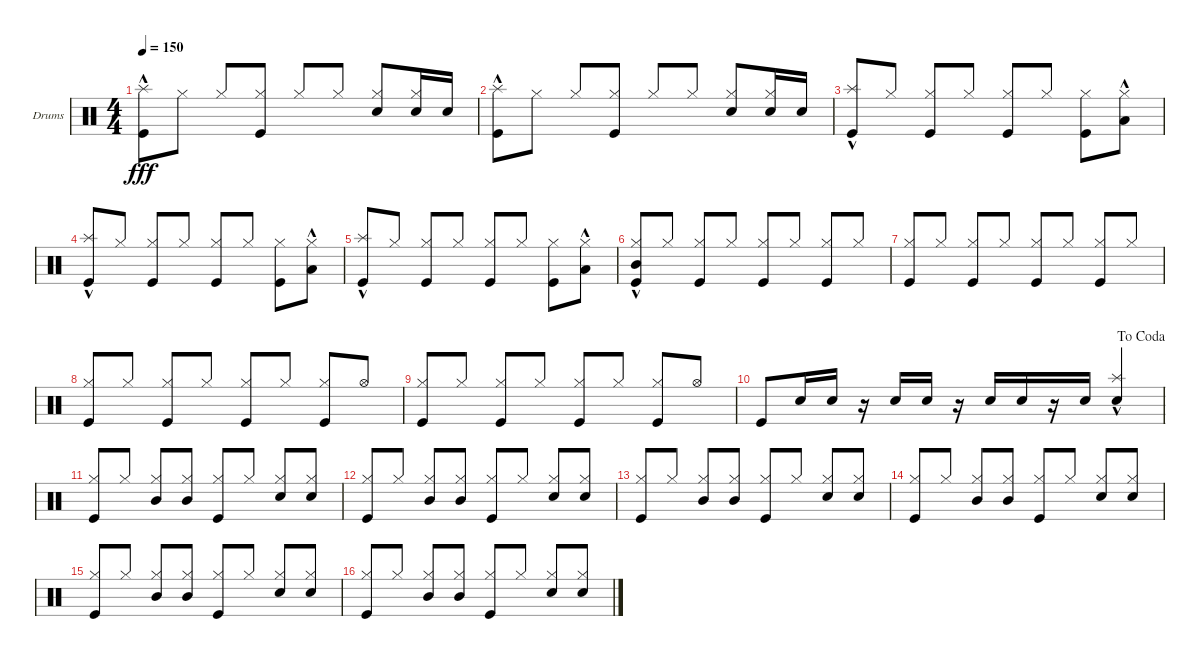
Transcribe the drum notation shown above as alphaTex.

\defaultSystemsLayout 4
\bracketExtendMode groupsimilarinstruments
\firstSystemTrackNameOrientation horizontal
\otherSystemsTrackNameOrientation horizontal
\track ("Drumkit" "Drums") {instrument percussion}
\staff {score}
\articulation defaults
\ts (4 4)
\tempo 150
\clef neutral
\ks c
("Kick (hit)" "Splash (hit)"{hac}).8{dy fff} "Hi-Hat (closed)".8 "Hi-Hat (closed)".8 ("Hi-Hat (closed)" "Kick (hit)").8 "Hi-Hat (closed)".8{beam invert} "Hi-Hat (closed)".8 ("Hi-Hat (closed)" "Snare (hit) 2").8{beam invert} ("Hi-Hat (closed)" "Snare (hit) 2").16 "Snare (hit) 2".16 |
("Kick (hit)" "Splash (hit)"{hac}).8 "Hi-Hat (closed)".8 "Hi-Hat (closed)".8 ("Hi-Hat (closed)" "Kick (hit)").8 "Hi-Hat (closed)".8{beam invert} "Hi-Hat (closed)".8 ("Hi-Hat (closed)" "Snare (hit) 2").8{beam invert} ("Hi-Hat (closed)" "Snare (hit) 2").16 "Snare (hit) 2".16 |
("Kick (hit)" "Splash (hit)"{hac}).8 "Hi-Hat (closed)".8 ("Hi-Hat (closed)" "Kick (hit)").8{beam invert} "Hi-Hat (closed)".8 ("Hi-Hat (closed)" "Kick (hit)").8{beam invert} "Hi-Hat (closed)".8 ("Hi-Hat (closed)" "Kick (hit)").8 ("Hi-Hat (closed)" "Low Tom (hit)"{hac}).8 |
("Kick (hit)" "Splash (hit)"{hac}).8 "Hi-Hat (closed)".8 ("Hi-Hat (closed)" "Kick (hit)").8{beam invert} "Hi-Hat (closed)".8 ("Hi-Hat (closed)" "Kick (hit)").8{beam invert} "Hi-Hat (closed)".8 ("Hi-Hat (closed)" "Kick (hit)").8 ("Hi-Hat (closed)" "Low Tom (hit)"{hac}).8 |
("Kick (hit)" "Splash (hit)"{hac}).8 "Hi-Hat (closed)".8 ("Hi-Hat (closed)" "Kick (hit)").8{beam invert} "Hi-Hat (closed)".8 ("Hi-Hat (closed)" "Kick (hit)").8{beam invert} "Hi-Hat (closed)".8 ("Hi-Hat (closed)" "Kick (hit)").8 ("Hi-Hat (closed)" "Low Tom (hit)"{hac}).8 |
("Hi-Hat (closed)" "Kick (hit)" "Mid Tom (hit)"{hac}).8{beam invert} "Hi-Hat (closed)".8 ("Hi-Hat (closed)" "Kick (hit)").8{beam invert} "Hi-Hat (closed)".8 ("Hi-Hat (closed)" "Kick (hit)").8{beam invert} "Hi-Hat (closed)".8 ("Hi-Hat (closed)" "Kick (hit)").8{beam invert} "Hi-Hat (closed)".8 |
("Hi-Hat (closed)" "Kick (hit)").8{beam invert} "Hi-Hat (closed)".8 ("Hi-Hat (closed)" "Kick (hit)").8{beam invert} "Hi-Hat (closed)".8 ("Hi-Hat (closed)" "Kick (hit)").8{beam invert} "Hi-Hat (closed)".8 ("Hi-Hat (closed)" "Kick (hit)").8{beam invert} "Hi-Hat (closed)".8 |
("Hi-Hat (closed)" "Kick (hit)").8{beam invert} "Hi-Hat (closed)".8 ("Hi-Hat (closed)" "Kick (hit)").8{beam invert} "Hi-Hat (closed)".8 ("Hi-Hat (closed)" "Kick (hit)").8{beam invert} "Hi-Hat (closed)".8 ("Hi-Hat (closed)" "Kick (hit)").8{beam invert} "Hi-Hat (open)".8 |
("Hi-Hat (closed)" "Kick (hit)").8{beam invert} "Hi-Hat (closed)".8 ("Hi-Hat (closed)" "Kick (hit)").8{beam invert} "Hi-Hat (closed)".8 ("Hi-Hat (closed)" "Kick (hit)").8{beam invert} "Hi-Hat (closed)".8 ("Hi-Hat (closed)" "Kick (hit)").8{beam invert} "Hi-Hat (open)".8 |
\jump dacoda "Kick (hit)".8 "Snare (hit) 2".16 "Snare (hit) 2".16
r.16 "Snare (hit) 2".16{beam invert} "Snare (hit) 2".16 r.16 "Snare (hit) 2".16 "Snare (hit) 2".16 r.16 "Snare (hit) 2".16 ("Snare (hit) 2" "Splash (hit)"{hac}).4{beam invert} |
("Kick (hit)" "Hi-Hat (closed)").8{beam invert} "Hi-Hat (closed)".8 ("Mid Tom (hit)" "Hi-Hat (closed)").8{beam invert} ("Mid Tom (hit)" "Hi-Hat (closed)").8 ("Hi-Hat (closed)" "Kick (hit)").8{beam invert} "Hi-Hat (closed)".8 ("Snare (hit) 2" "Hi-Hat (closed)").8{beam invert} ("Snare (hit) 2" "Hi-Hat (closed)").8 |
("Kick (hit)" "Hi-Hat (closed)").8{beam invert} "Hi-Hat (closed)".8 ("Mid Tom (hit)" "Hi-Hat (closed)").8{beam invert} ("Mid Tom (hit)" "Hi-Hat (closed)").8 ("Hi-Hat (closed)" "Kick (hit)").8{beam invert} "Hi-Hat (closed)".8 ("Snare (hit) 2" "Hi-Hat (closed)").8{beam invert} ("Snare (hit) 2" "Hi-Hat (closed)").8 |
("Kick (hit)" "Hi-Hat (closed)").8{beam invert} "Hi-Hat (closed)".8 ("Mid Tom (hit)" "Hi-Hat (closed)").8{beam invert} ("Mid Tom (hit)" "Hi-Hat (closed)").8 ("Hi-Hat (closed)" "Kick (hit)").8{beam invert} "Hi-Hat (closed)".8 ("Snare (hit) 2" "Hi-Hat (closed)").8{beam invert} ("Snare (hit) 2" "Hi-Hat (closed)").8 |
("Kick (hit)" "Hi-Hat (closed)").8{beam invert} "Hi-Hat (closed)".8 ("Mid Tom (hit)" "Hi-Hat (closed)").8{beam invert} ("Mid Tom (hit)" "Hi-Hat (closed)").8 ("Hi-Hat (closed)" "Kick (hit)").8{beam invert} "Hi-Hat (closed)".8 ("Snare (hit) 2" "Hi-Hat (closed)").8{beam invert} ("Snare (hit) 2" "Hi-Hat (closed)").8 |
("Kick (hit)" "Hi-Hat (closed)").8{beam invert} "Hi-Hat (closed)".8 ("Mid Tom (hit)" "Hi-Hat (closed)").8{beam invert} ("Mid Tom (hit)" "Hi-Hat (closed)").8 ("Hi-Hat (closed)" "Kick (hit)").8{beam invert} "Hi-Hat (closed)".8 ("Snare (hit) 2" "Hi-Hat (closed)").8{beam invert} ("Snare (hit) 2" "Hi-Hat (closed)").8 |
("Kick (hit)" "Hi-Hat (closed)").8{beam invert} "Hi-Hat (closed)".8 ("Mid Tom (hit)" "Hi-Hat (closed)").8{beam invert} ("Mid Tom (hit)" "Hi-Hat (closed)").8 ("Hi-Hat (closed)" "Kick (hit)").8{beam invert} "Hi-Hat (closed)".8 ("Snare (hit) 2" "Hi-Hat (closed)").8{beam invert} ("Snare (hit) 2" "Hi-Hat (closed)").8
